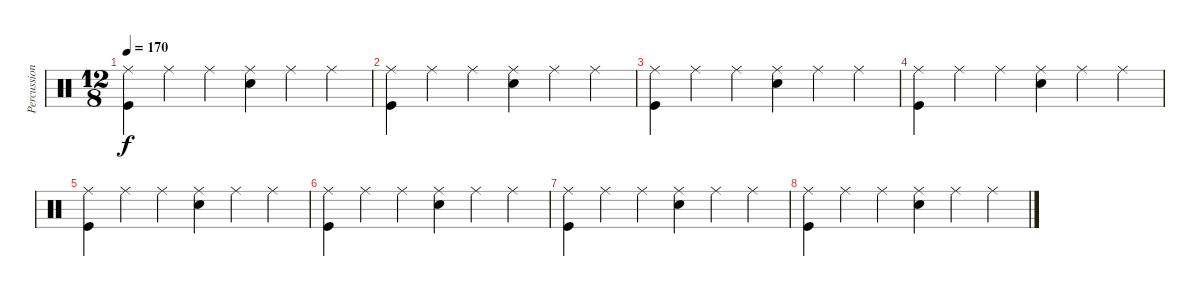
\track ("Percussion" "Percussion") {instrument percussion}
\staff {score}
\articulation defaults
\ts (12 8)
\tempo 170
\clef neutral
\ks c
("Ride (middle)" "Kick (hit)").4{dy f} "Ride (middle)".4 "Ride (middle)".4 ("Ride (middle)" "Snare (hit) 2").4 "Ride (middle)".4 "Ride (middle)".4 |
("Ride (middle)" "Kick (hit)").4 "Ride (middle)".4 "Ride (middle)".4 ("Ride (middle)" "Snare (hit) 2").4 "Ride (middle)".4 "Ride (middle)".4 |
("Ride (middle)" "Kick (hit)").4 "Ride (middle)".4 "Ride (middle)".4 ("Ride (middle)" "Snare (hit) 2").4 "Ride (middle)".4 "Ride (middle)".4 |
("Ride (middle)" "Kick (hit)").4 "Ride (middle)".4 "Ride (middle)".4 ("Ride (middle)" "Snare (hit) 2").4 "Ride (middle)".4 "Ride (middle)".4 |
("Ride (middle)" "Kick (hit)").4 "Ride (middle)".4 "Ride (middle)".4 ("Ride (middle)" "Snare (hit) 2").4 "Ride (middle)".4 "Ride (middle)".4 |
("Ride (middle)" "Kick (hit)").4 "Ride (middle)".4 "Ride (middle)".4 ("Ride (middle)" "Snare (hit) 2").4 "Ride (middle)".4 "Ride (middle)".4 |
("Ride (middle)" "Kick (hit)").4 "Ride (middle)".4 "Ride (middle)".4 ("Ride (middle)" "Snare (hit) 2").4 "Ride (middle)".4 "Ride (middle)".4 |
("Ride (middle)" "Kick (hit)").4 "Ride (middle)".4 "Ride (middle)".4 ("Ride (middle)" "Snare (hit) 2").4 "Ride (middle)".4 "Ride (middle)".4
